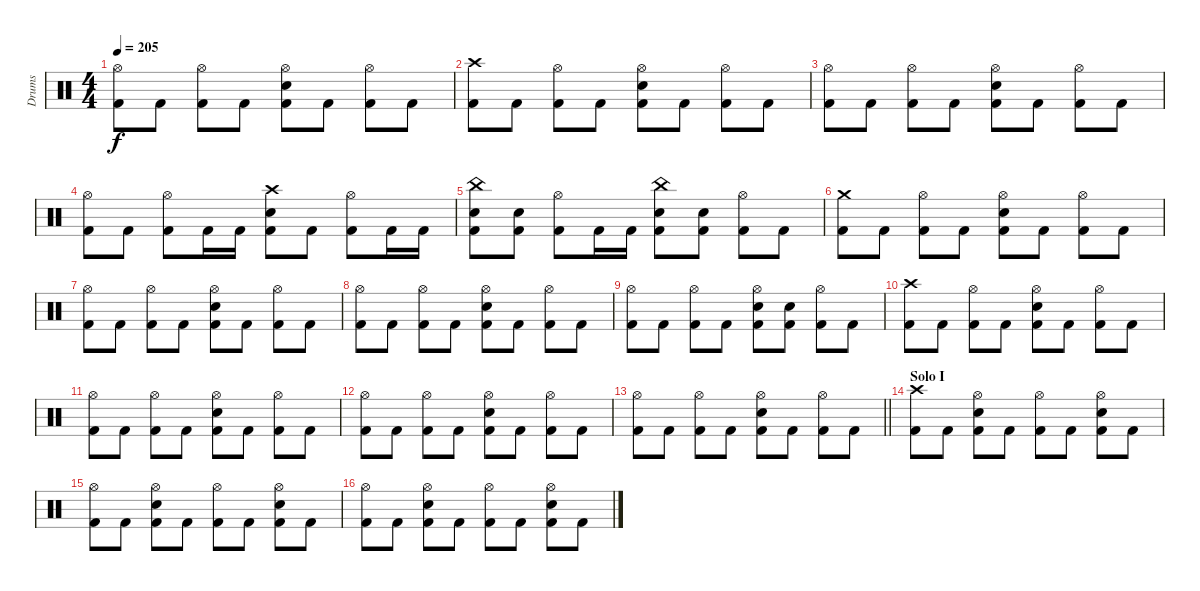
\track ("Drums" "Drums") {instrument percussion}
\staff {score}
\articulation defaults
\ts (4 4)
\tempo 205
\clef neutral
\ks c
("Hi-Hat (open)" "Kick (hit) 2").8{dy f} "Kick (hit) 2".8 ("Hi-Hat (open)" "Kick (hit) 2").8 "Kick (hit) 2".8 ("Hi-Hat (open)" "Electric Snare (hit)" "Kick (hit) 2").8 "Kick (hit) 2".8 ("Hi-Hat (open)" "Kick (hit) 2").8 "Kick (hit) 2".8 |
("Crash high (hit)" "Kick (hit) 2").8 "Kick (hit) 2".8 ("Hi-Hat (open)" "Kick (hit) 2").8 "Kick (hit) 2".8 ("Hi-Hat (open)" "Electric Snare (hit)" "Kick (hit) 2").8 "Kick (hit) 2".8 ("Hi-Hat (open)" "Kick (hit) 2").8 "Kick (hit) 2".8 |
("Hi-Hat (open)" "Kick (hit) 2").8 "Kick (hit) 2".8 ("Hi-Hat (open)" "Kick (hit) 2").8 "Kick (hit) 2".8 ("Hi-Hat (open)" "Electric Snare (hit)" "Kick (hit) 2").8 "Kick (hit) 2".8 ("Hi-Hat (open)" "Kick (hit) 2").8 "Kick (hit) 2".8 |
("Hi-Hat (open)" "Kick (hit) 2").8 "Kick (hit) 2".8 ("Hi-Hat (open)" "Kick (hit) 2").8 "Kick (hit) 2".16 "Kick (hit) 2".16 ("Crash high (hit)" "Electric Snare (hit)" "Kick (hit) 2").8 "Kick (hit) 2".8 ("Hi-Hat (open)" "Kick (hit) 2").8 "Kick (hit) 2".16 "Kick (hit) 2".16 |
("China (hit)" "Electric Snare (hit)" "Kick (hit) 2").8 ("Electric Snare (hit)" "Kick (hit) 2").8 ("Hi-Hat (open)" "Kick (hit) 2").8 "Kick (hit) 2".16 "Kick (hit) 2".16 ("China (hit)" "Electric Snare (hit)" "Kick (hit) 2").8 ("Electric Snare (hit)" "Kick (hit) 2").8 ("Hi-Hat (open)" "Kick (hit) 2").8 "Kick (hit) 2".8 |
("Crash medium (hit)" "Kick (hit) 2").8 "Kick (hit) 2".8 ("Hi-Hat (open)" "Kick (hit) 2").8 "Kick (hit) 2".8 ("Hi-Hat (open)" "Electric Snare (hit)" "Kick (hit) 2").8 "Kick (hit) 2".8 ("Hi-Hat (open)" "Kick (hit) 2").8 "Kick (hit) 2".8 |
("Hi-Hat (open)" "Kick (hit) 2").8 "Kick (hit) 2".8 ("Hi-Hat (open)" "Kick (hit) 2").8 "Kick (hit) 2".8 ("Hi-Hat (open)" "Electric Snare (hit)" "Kick (hit) 2").8 "Kick (hit) 2".8 ("Hi-Hat (open)" "Kick (hit) 2").8 "Kick (hit) 2".8 |
("Hi-Hat (open)" "Kick (hit) 2").8 "Kick (hit) 2".8 ("Hi-Hat (open)" "Kick (hit) 2").8 "Kick (hit) 2".8 ("Hi-Hat (open)" "Electric Snare (hit)" "Kick (hit) 2").8 "Kick (hit) 2".8 ("Hi-Hat (open)" "Kick (hit) 2").8 "Kick (hit) 2".8 |
("Hi-Hat (open)" "Kick (hit) 2").8 "Kick (hit) 2".8 ("Hi-Hat (open)" "Kick (hit) 2").8 "Kick (hit) 2".8 ("Hi-Hat (open)" "Electric Snare (hit)" "Kick (hit) 2").8 ("Electric Snare (hit)" "Kick (hit) 2").8 ("Hi-Hat (open)" "Kick (hit) 2").8 "Kick (hit) 2".8 |
("Crash high (hit)" "Kick (hit) 2").8 "Kick (hit) 2".8 ("Hi-Hat (open)" "Kick (hit) 2").8 "Kick (hit) 2".8 ("Hi-Hat (open)" "Electric Snare (hit)" "Kick (hit) 2").8 "Kick (hit) 2".8 ("Hi-Hat (open)" "Kick (hit) 2").8 "Kick (hit) 2".8 |
("Hi-Hat (open)" "Kick (hit) 2").8 "Kick (hit) 2".8 ("Hi-Hat (open)" "Kick (hit) 2").8 "Kick (hit) 2".8 ("Hi-Hat (open)" "Electric Snare (hit)" "Kick (hit) 2").8 "Kick (hit) 2".8 ("Hi-Hat (open)" "Kick (hit) 2").8 "Kick (hit) 2".8 |
("Hi-Hat (open)" "Kick (hit) 2").8 "Kick (hit) 2".8 ("Hi-Hat (open)" "Kick (hit) 2").8 "Kick (hit) 2".8 ("Hi-Hat (open)" "Electric Snare (hit)" "Kick (hit) 2").8 "Kick (hit) 2".8 ("Hi-Hat (open)" "Kick (hit) 2").8 "Kick (hit) 2".8 |
\barLineRight lightlight
("Hi-Hat (open)" "Kick (hit) 2").8 "Kick (hit) 2".8 ("Hi-Hat (open)" "Kick (hit) 2").8 "Kick (hit) 2".8 ("Hi-Hat (open)" "Electric Snare (hit)" "Kick (hit) 2").8 "Kick (hit) 2".8 ("Hi-Hat (open)" "Kick (hit) 2").8 "Kick (hit) 2".8 |
\section ("" "Solo I")
("Crash high (hit)" "Kick (hit) 2").8 "Kick (hit) 2".8 ("Hi-Hat (open)" "Electric Snare (hit)" "Kick (hit) 2").8 "Kick (hit) 2".8 ("Hi-Hat (open)" "Kick (hit) 2").8 "Kick (hit) 2".8 ("Hi-Hat (open)" "Electric Snare (hit)" "Kick (hit) 2").8 "Kick (hit) 2".8 |
("Hi-Hat (open)" "Kick (hit) 2").8 "Kick (hit) 2".8 ("Hi-Hat (open)" "Electric Snare (hit)" "Kick (hit) 2").8 "Kick (hit) 2".8 ("Hi-Hat (open)" "Kick (hit) 2").8 "Kick (hit) 2".8 ("Hi-Hat (open)" "Electric Snare (hit)" "Kick (hit) 2").8 "Kick (hit) 2".8 |
("Hi-Hat (open)" "Kick (hit) 2").8 "Kick (hit) 2".8 ("Hi-Hat (open)" "Electric Snare (hit)" "Kick (hit) 2").8 "Kick (hit) 2".8 ("Hi-Hat (open)" "Kick (hit) 2").8 "Kick (hit) 2".8 ("Hi-Hat (open)" "Electric Snare (hit)" "Kick (hit) 2").8 "Kick (hit) 2".8
